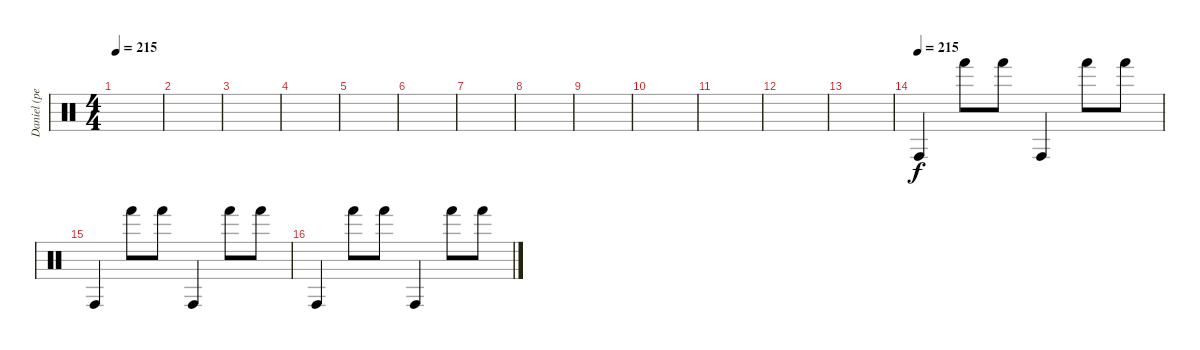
\track ("Daniel (percussion)" "Daniel (pe") {instrument percussion}
\staff {score}
\articulation defaults
\ts (4 4)
\tempo 215
\clef neutral
\ks c
|
|
|
|
|
|
|
|
|
|
|
|
|
\tempo (215)
"Conga high (hit)".4 "Hand (hit)".8 "Hand (hit)".8 "Conga high (hit)".4 "Hand (hit)".8 "Hand (hit)".8 |
"Conga high (hit)".4 "Hand (hit)".8 "Hand (hit)".8 "Conga high (hit)".4 "Hand (hit)".8 "Hand (hit)".8 |
"Conga high (hit)".4 "Hand (hit)".8 "Hand (hit)".8 "Conga high (hit)".4 "Hand (hit)".8 "Hand (hit)".8
